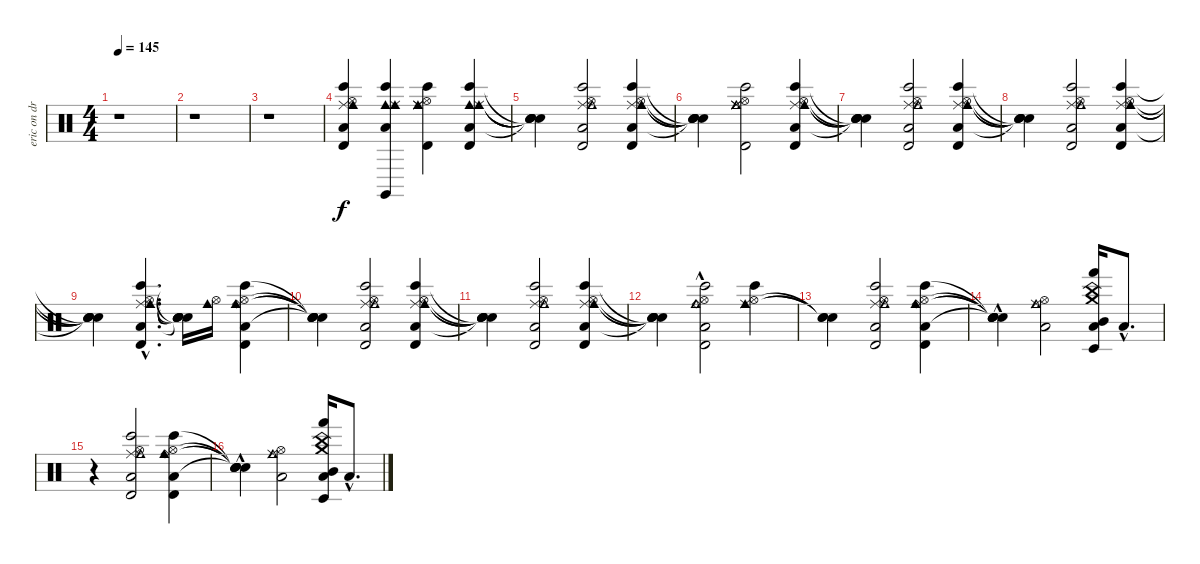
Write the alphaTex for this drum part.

\track ("eric on drums" "eric on dr") {instrument percussion}
\staff {score}
\articulation defaults
\ts (4 4)
\tempo 145
\clef neutral
\ks c
r.1{dy f} |
r.1 |
r.1 |
("Low Floor Tom (hit)" "Hi-Hat (open)" "Ride (middle)" "Cowbell medium (hit)" "Bongo High (hit)" "Timbale high (hit)").4 ("Low Floor Tom (hit)" "Cowbell medium (hit)" "Ride (middle)" "Cowbell medium (hit)" "Bongo High (hit)" "Claves (hit)").4 ("Ride (middle)" "Hi-Hat (open)" "Ride (middle)" "Cowbell medium (hit)" "Bongo High (hit)" "Timbale high (hit)").4 ("Low Floor Tom (hit)" "Cowbell medium (hit)" "Ride (middle)" "Cowbell medium (hit)" "Bongo High (hit)" "Timbale high (hit)").4 |
("Snare (hit)"{t} "Snare (hit)"{t} "Snare (hit)"{t} "Snare (hit)"{t} "Snare (hit)"{t}).4 ("Low Floor Tom (hit)" "Hi-Hat (open)" "Ride (middle)" "Cowbell medium (hit)" "Bongo High (hit)" "Timbale high (hit)").2 ("Low Floor Tom (hit)" "Hi-Hat (open)" "Ride (middle)" "Cowbell medium (hit)" "Bongo High (hit)" "Timbale high (hit)").4 |
("Snare (hit)"{t} "Snare (hit)"{t} "Snare (hit)"{t} "Snare (hit)"{t} "Snare (hit)"{t}).4 ("Ride (middle)" "Hi-Hat (open)" "Ride (middle)" "Cowbell medium (hit)" "Bongo High (hit)" "Timbale high (hit)").2 ("Low Floor Tom (hit)" "Hi-Hat (open)" "Ride (middle)" "Cowbell medium (hit)" "Bongo High (hit)" "Timbale high (hit)").4 |
("Snare (hit)"{t} "Snare (hit)"{t} "Snare (hit)"{t} "Snare (hit)"{t} "Snare (hit)"{t}).4 ("Low Floor Tom (hit)" "Hi-Hat (open)" "Ride (middle)" "Cowbell medium (hit)" "Bongo High (hit)" "Timbale high (hit)").2 ("Low Floor Tom (hit)" "Hi-Hat (open)" "Ride (middle)" "Cowbell medium (hit)" "Bongo High (hit)" "Timbale high (hit)").4 |
("Snare (hit)"{t} "Snare (hit)"{t} "Snare (hit)"{t} "Snare (hit)"{t} "Snare (hit)"{t}).4 ("Low Floor Tom (hit)" "Hi-Hat (open)" "Ride (middle)" "Cowbell medium (hit)" "Bongo High (hit)" "Timbale high (hit)").2 ("Low Floor Tom (hit)" "Hi-Hat (open)" "Ride (middle)" "Cowbell medium (hit)" "Bongo High (hit)" "Timbale high (hit)").4 |
("Snare (hit)"{t} "Snare (hit)"{t} "Snare (hit)"{t} "Snare (hit)"{t} "Snare (hit)"{t}).4 ("Low Floor Tom (hit)" "Hi-Hat (open)"{hac} "Ride (middle)"{hac} "Cowbell medium (hit)"{hac} "Bongo High (hit)"{hac} "Timbale high (hit)"{hac}).4{d} ("Snare (hit)"{t} "Snare (hit)"{t} "Snare (hit)"{t} "Snare (hit)"{t} "Snare (hit)"{t}).16 ("Hi-Hat (open)" "Cowbell medium (hit)").16 ("Low Floor Tom (hit)" "Hi-Hat (open)" "Ride (bell)" "Cowbell medium (hit)" "Bongo High (hit)" "Timbale high (hit)").4 |
("Snare (hit)"{t} "Snare (hit)"{t} "Snare (hit)"{t} "Snare (hit)"{t} "Snare (hit)"{t}).4 ("Low Floor Tom (hit)" "Hi-Hat (open)" "Ride (middle)" "Cowbell medium (hit)" "Bongo High (hit)" "Timbale high (hit)").2 ("Low Floor Tom (hit)" "Hi-Hat (open)" "Ride (middle)" "Cowbell medium (hit)" "Bongo High (hit)" "Timbale high (hit)").4 |
("Snare (hit)"{t} "Snare (hit)"{t} "Snare (hit)"{t} "Snare (hit)"{t} "Snare (hit)"{t}).4 ("Low Floor Tom (hit)" "Hi-Hat (open)" "Ride (middle)" "Cowbell medium (hit)" "Bongo High (hit)" "Timbale high (hit)").2 ("Low Floor Tom (hit)" "Hi-Hat (open)" "Ride (middle)" "Cowbell medium (hit)" "Bongo High (hit)" "Timbale high (hit)").4 |
("Snare (hit)"{t} "Snare (hit)"{t} "Snare (hit)"{t} "Snare (hit)"{t} "Snare (hit)"{t}).4 ("Low Floor Tom (hit)" "Hi-Hat (open)" "Ride (bell)" "Cowbell medium (hit)"{hac} "Bongo High (hit)"{hac} "Timbale high (hit)").2 ("Hi-Hat (open)" "Ride (middle)" "Cowbell medium (hit)" "Bongo High (hit)").4 |
("Snare (hit)"{t} "Snare (hit)"{t} "Snare (hit)"{t}).4 ("Low Floor Tom (hit)" "Hi-Hat (open)" "Ride (middle)" "Cowbell medium (hit)" "Bongo High (hit)" "Timbale high (hit)").2 ("Low Floor Tom (hit)" "Hi-Hat (open)" "Ride (bell)" "Cowbell medium (hit)" "Bongo High (hit)" "Timbale high (hit)").4 |
("Snare (hit)"{t} "Snare (hit)"{t} "Snare (hit)"{t} "Snare (hit)"{hac t} "Snare (hit)"{hac t}).4 ("Low Floor Tom (hit)" "Hi-Hat (open)" "Ride (middle)" "Cowbell medium (hit)").2 ("Low Floor Tom (hit)" "Mid Tom (hit)" "China (hit)" "Crash medium (hit)" "Hand (hit)" "Timbale low (hit)").16 "Low Floor Tom (hit)"{hac}.8{d} |
r.4 ("Low Floor Tom (hit)" "Hi-Hat (open)" "Ride (middle)" "Cowbell medium (hit)" "Bongo High (hit)" "Timbale high (hit)").2 ("Low Floor Tom (hit)" "Hi-Hat (open)" "Ride (bell)" "Cowbell medium (hit)" "Bongo High (hit)" "Timbale high (hit)").4 |
("Snare (hit)"{t} "Snare (hit)"{t} "Snare (hit)"{t} "Snare (hit)"{hac t} "Snare (hit)"{hac t}).4 ("Low Floor Tom (hit)" "Hi-Hat (open)" "Ride (middle)" "Cowbell medium (hit)").2 ("Low Floor Tom (hit)" "Mid Tom (hit)" "China (hit)" "Crash medium (hit)" "Hand (hit)" "Timbale low (hit)").16 "Low Floor Tom (hit)"{hac}.8{d}
